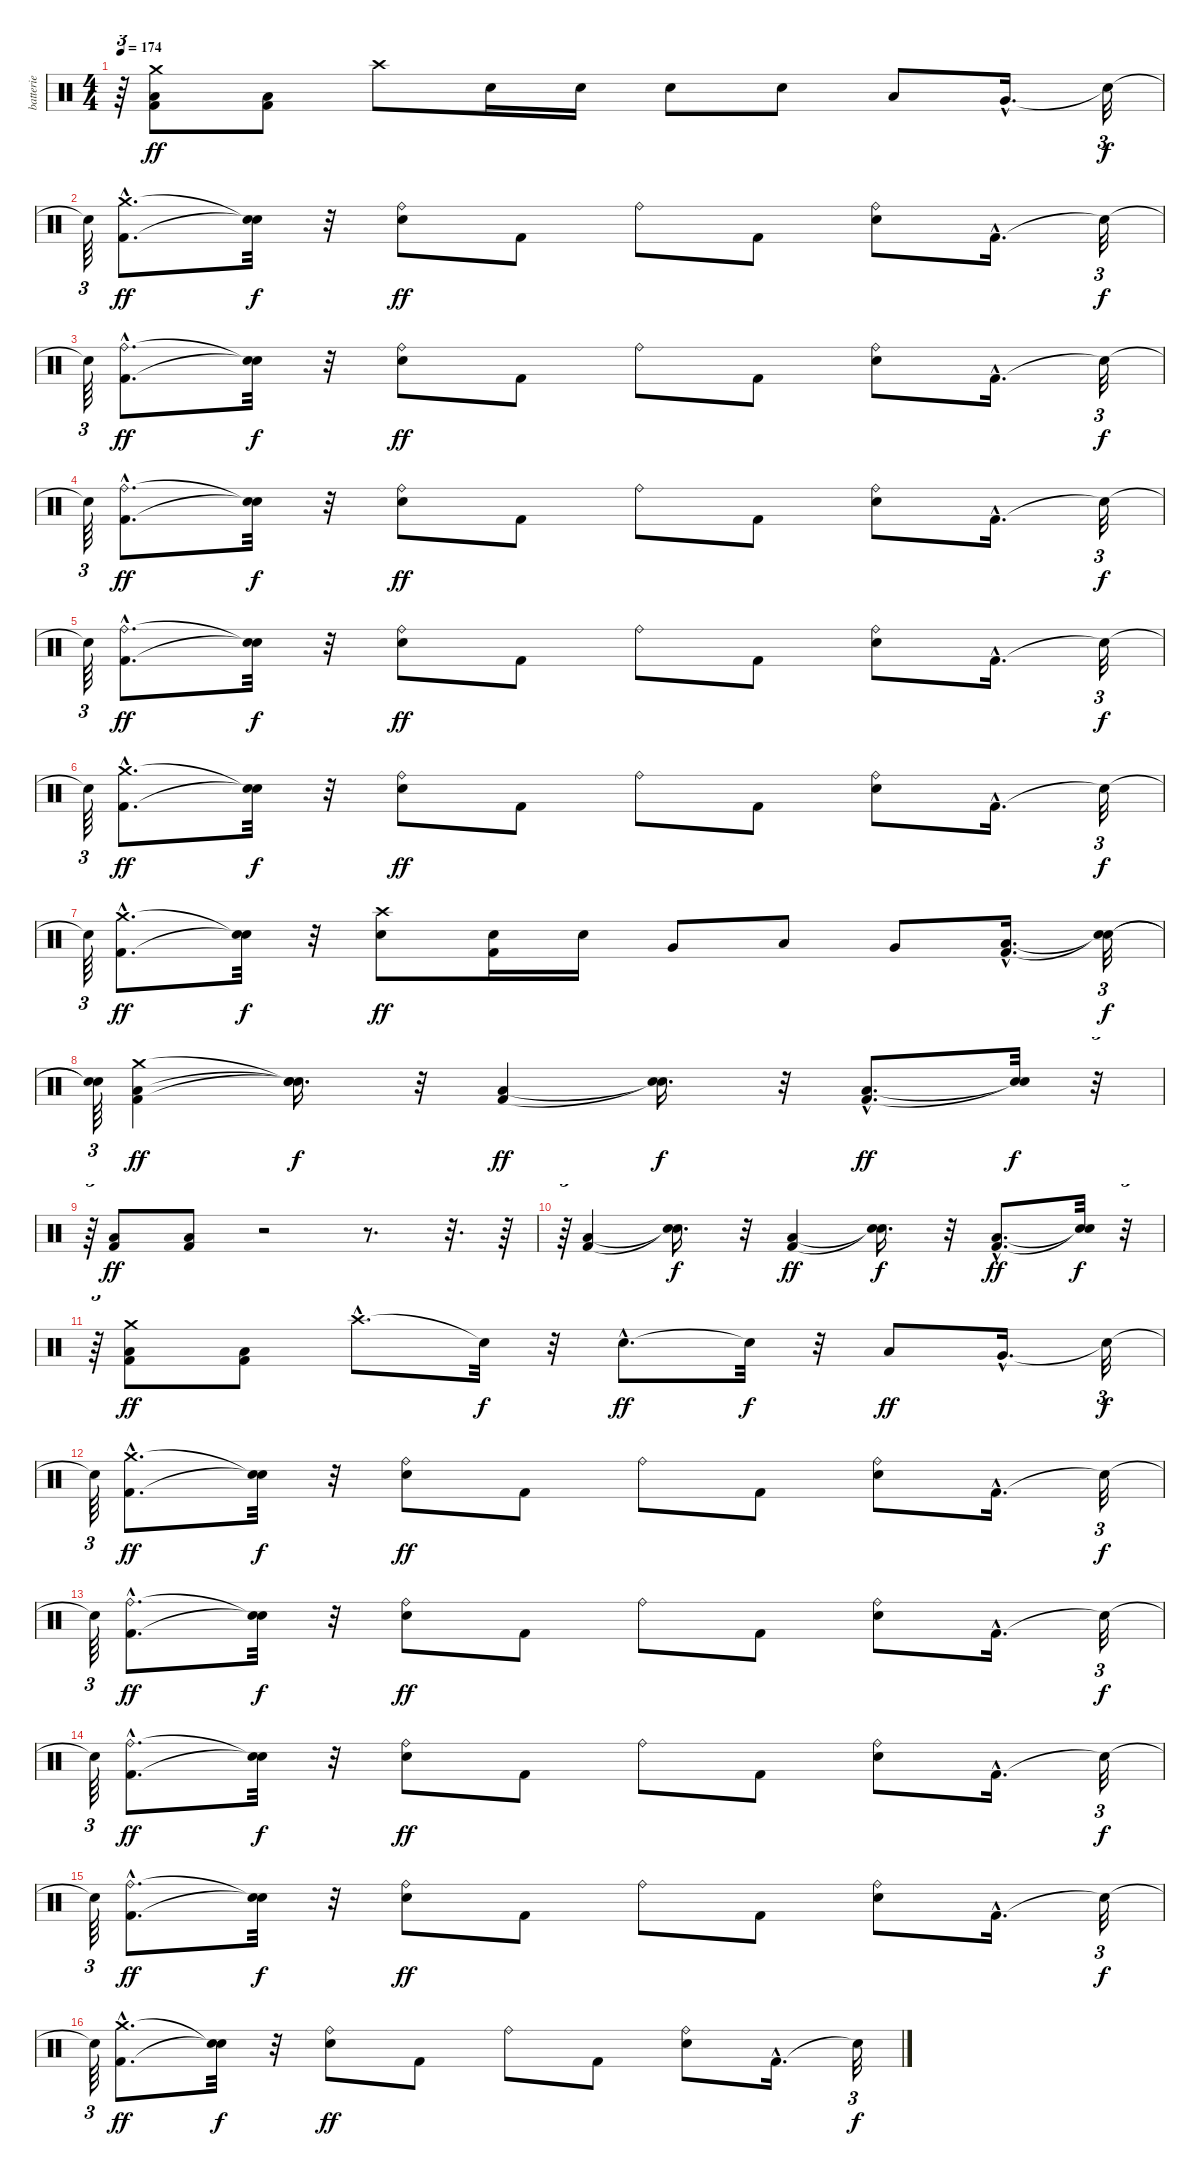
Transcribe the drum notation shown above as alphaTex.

\track ("batterie" "batterie") {instrument percussion}
\staff {score}
\articulation defaults
\ts (4 4)
\tempo 174
\clef neutral
\ks c
r.64{tu (3 2) dy f} ("Kick (hit) 2" "Low Floor Tom (hit)" "Crash medium (hit)").8{dy ff} ("Kick (hit) 2" "Low Floor Tom (hit)").8 "Crash high (hit)".8 "Electric Snare (hit)".16 "Electric Snare (hit)".16 "Electric Snare (hit)".8 "Electric Snare (hit)".8 "Low Tom (hit)".8 "Very Low Tom (hit)"{hac}.16{d} "Snare (hit)"{t}.32{tu (3 2) dy f} |
"Snare (hit)"{t}.64{tu (3 2)} ("Kick (hit) 2"{hac} "Crash medium (hit)"{hac}).8{d dy ff} ("Snare (hit)"{t} "Snare (hit)"{t}).32{dy f} r.32 ("Electric Snare (hit)" "Ride (bell)").8{dy ff} "Kick (hit) 2".8 "Ride (bell)".8 "Kick (hit) 2".8 ("Electric Snare (hit)" "Ride (bell)").8 "Kick (hit) 2"{hac}.16{d} "Snare (hit)"{t}.32{tu (3 2) dy f} |
"Snare (hit)"{t}.64{tu (3 2)} ("Kick (hit) 2"{hac} "Ride (bell)"{hac}).8{d dy ff} ("Snare (hit)"{t} "Snare (hit)"{t}).32{dy f} r.32 ("Electric Snare (hit)" "Ride (bell)").8{dy ff} "Kick (hit) 2".8 "Ride (bell)".8 "Kick (hit) 2".8 ("Electric Snare (hit)" "Ride (bell)").8 "Kick (hit) 2"{hac}.16{d} "Snare (hit)"{t}.32{tu (3 2) dy f} |
"Snare (hit)"{t}.64{tu (3 2)} ("Kick (hit) 2"{hac} "Ride (bell)"{hac}).8{d dy ff} ("Snare (hit)"{t} "Snare (hit)"{t}).32{dy f} r.32 ("Electric Snare (hit)" "Ride (bell)").8{dy ff} "Kick (hit) 2".8 "Ride (bell)".8 "Kick (hit) 2".8 ("Electric Snare (hit)" "Ride (bell)").8 "Kick (hit) 2"{hac}.16{d} "Snare (hit)"{t}.32{tu (3 2) dy f} |
"Snare (hit)"{t}.64{tu (3 2)} ("Kick (hit) 2"{hac} "Ride (bell)"{hac}).8{d dy ff} ("Snare (hit)"{t} "Snare (hit)"{t}).32{dy f} r.32 ("Electric Snare (hit)" "Ride (bell)").8{dy ff} "Kick (hit) 2".8 "Ride (bell)".8 "Kick (hit) 2".8 ("Electric Snare (hit)" "Ride (bell)").8 "Kick (hit) 2"{hac}.16{d} "Snare (hit)"{t}.32{tu (3 2) dy f} |
"Snare (hit)"{t}.64{tu (3 2)} ("Kick (hit) 2"{hac} "Crash medium (hit)"{hac}).8{d dy ff} ("Snare (hit)"{t} "Snare (hit)"{t}).32{dy f} r.32 ("Electric Snare (hit)" "Ride (bell)").8{dy ff} "Kick (hit) 2".8 "Ride (bell)".8 "Kick (hit) 2".8 ("Electric Snare (hit)" "Ride (bell)").8 "Kick (hit) 2"{hac}.16{d} "Snare (hit)"{t}.32{tu (3 2) dy f} |
"Snare (hit)"{t}.64{tu (3 2)} ("Kick (hit) 2"{hac} "Crash medium (hit)"{hac}).8{d dy ff} ("Snare (hit)"{t} "Snare (hit)"{t}).32{dy f} r.32 ("Electric Snare (hit)" "Crash high (hit)").8{dy ff} ("Kick (hit) 2" "Electric Snare (hit)").16 "Electric Snare (hit)".16 "Very Low Tom (hit)".8 "Low Floor Tom (hit)".8 "Very Low Tom (hit)".8 ("Kick (hit) 2"{hac} "Low Floor Tom (hit)"{hac}).16{d} ("Snare (hit)"{t} "Snare (hit)"{t}).32{tu (3 2) dy f} |
("Snare (hit)"{t} "Snare (hit)"{t}).64{tu (3 2)} ("Kick (hit) 2" "Low Floor Tom (hit)" "Crash medium (hit)").4{dy ff} ("Snare (hit)"{t} "Snare (hit)"{t} "Snare (hit)"{t}).16{d dy f} r.32 ("Kick (hit) 2" "Low Floor Tom (hit)").4{dy ff} ("Snare (hit)"{t} "Snare (hit)"{t}).16{d dy f} r.32 ("Kick (hit) 2"{hac} "Low Floor Tom (hit)"{hac}).8{d dy ff} ("Snare (hit)"{t} "Snare (hit)"{t}).32{dy f} r.32{tu (3 2)} |
r.64{tu (3 2)} ("Kick (hit) 2" "Low Floor Tom (hit)").8{dy ff} ("Kick (hit) 2" "Low Floor Tom (hit)").8 r.2 r.8{d} r.32{d} r.64 |
r.64{tu (3 2)} ("Kick (hit) 2" "Low Floor Tom (hit)").4 ("Snare (hit)"{t} "Snare (hit)"{t}).16{d dy f} r.32 ("Kick (hit) 2" "Low Floor Tom (hit)").4{dy ff} ("Snare (hit)"{t} "Snare (hit)"{t}).16{d dy f} r.32 ("Kick (hit) 2"{hac} "Low Floor Tom (hit)"{hac}).8{d dy ff} ("Snare (hit)"{t} "Snare (hit)"{t}).32{dy f} r.32{tu (3 2)} |
r.64{tu (3 2)} ("Kick (hit) 2" "Low Floor Tom (hit)" "Crash medium (hit)").8{dy ff} ("Kick (hit) 2" "Low Floor Tom (hit)").8 "Crash high (hit)"{hac}.8{d} "Snare (hit)"{t}.32{dy f} r.32 "Electric Snare (hit)"{hac}.8{d dy ff} "Snare (hit)"{t}.32{dy f} r.32 "Low Tom (hit)".8{dy ff} "Very Low Tom (hit)"{hac}.16{d} "Snare (hit)"{t}.32{tu (3 2) dy f} |
"Snare (hit)"{t}.64{tu (3 2)} ("Kick (hit) 2"{hac} "Crash medium (hit)"{hac}).8{d dy ff} ("Snare (hit)"{t} "Snare (hit)"{t}).32{dy f} r.32 ("Electric Snare (hit)" "Ride (bell)").8{dy ff} "Kick (hit) 2".8 "Ride (bell)".8 "Kick (hit) 2".8 ("Electric Snare (hit)" "Ride (bell)").8 "Kick (hit) 2"{hac}.16{d} "Snare (hit)"{t}.32{tu (3 2) dy f} |
"Snare (hit)"{t}.64{tu (3 2)} ("Kick (hit) 2"{hac} "Ride (bell)"{hac}).8{d dy ff} ("Snare (hit)"{t} "Snare (hit)"{t}).32{dy f} r.32 ("Electric Snare (hit)" "Ride (bell)").8{dy ff} "Kick (hit) 2".8 "Ride (bell)".8 "Kick (hit) 2".8 ("Electric Snare (hit)" "Ride (bell)").8 "Kick (hit) 2"{hac}.16{d} "Snare (hit)"{t}.32{tu (3 2) dy f} |
"Snare (hit)"{t}.64{tu (3 2)} ("Kick (hit) 2"{hac} "Ride (bell)"{hac}).8{d dy ff} ("Snare (hit)"{t} "Snare (hit)"{t}).32{dy f} r.32 ("Electric Snare (hit)" "Ride (bell)").8{dy ff} "Kick (hit) 2".8 "Ride (bell)".8 "Kick (hit) 2".8 ("Electric Snare (hit)" "Ride (bell)").8 "Kick (hit) 2"{hac}.16{d} "Snare (hit)"{t}.32{tu (3 2) dy f} |
"Snare (hit)"{t}.64{tu (3 2)} ("Kick (hit) 2"{hac} "Ride (bell)"{hac}).8{d dy ff} ("Snare (hit)"{t} "Snare (hit)"{t}).32{dy f} r.32 ("Electric Snare (hit)" "Ride (bell)").8{dy ff} "Kick (hit) 2".8 "Ride (bell)".8 "Kick (hit) 2".8 ("Electric Snare (hit)" "Ride (bell)").8 "Kick (hit) 2"{hac}.16{d} "Snare (hit)"{t}.32{tu (3 2) dy f} |
"Snare (hit)"{t}.64{tu (3 2)} ("Kick (hit) 2"{hac} "Crash medium (hit)"{hac}).8{d dy ff} ("Snare (hit)"{t} "Snare (hit)"{t}).32{dy f} r.32 ("Electric Snare (hit)" "Ride (bell)").8{dy ff} "Kick (hit) 2".8 "Ride (bell)".8 "Kick (hit) 2".8 ("Electric Snare (hit)" "Ride (bell)").8 "Kick (hit) 2"{hac}.16{d} "Snare (hit)"{t}.32{tu (3 2) dy f}
